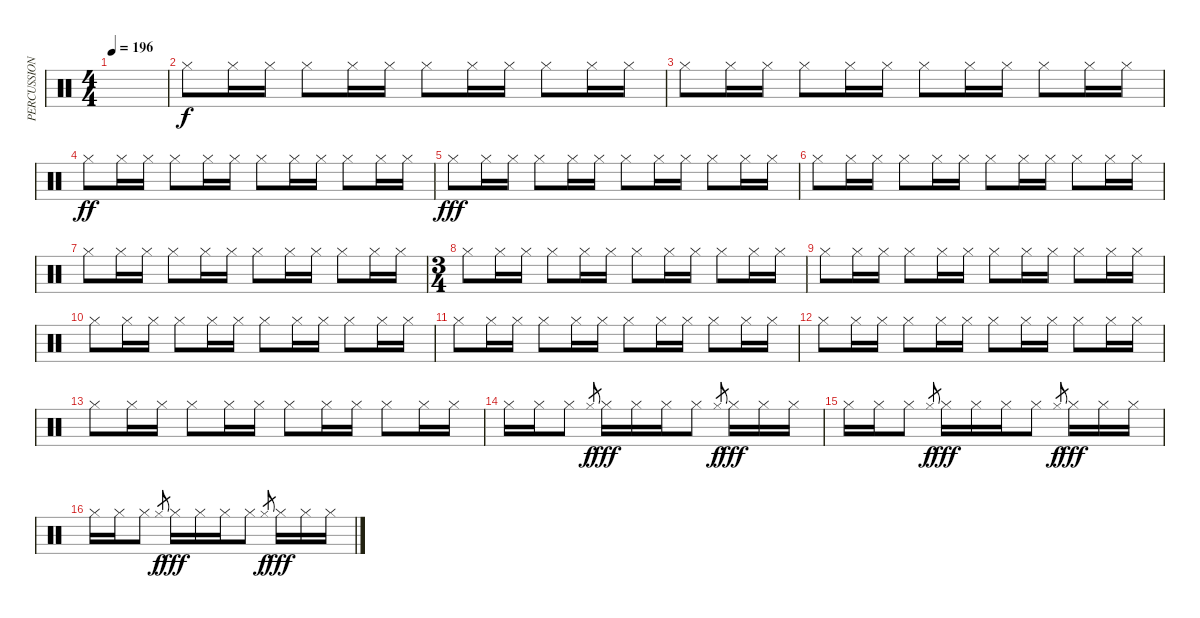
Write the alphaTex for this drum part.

\track ("PERCUSSION" "PERCUSSION") {instrument percussion}
\staff {score}
\articulation defaults
\ts (4 4)
\tempo 196
\clef neutral
\ks c
|
"Hi-Hat (closed)".8 "Hi-Hat (closed)".16 "Hi-Hat (closed)".16 "Hi-Hat (closed)".8 "Hi-Hat (closed)".16 "Hi-Hat (closed)".16 "Hi-Hat (closed)".8 "Hi-Hat (closed)".16 "Hi-Hat (closed)".16 "Hi-Hat (closed)".8 "Hi-Hat (closed)".16 "Hi-Hat (closed)".16 |
"Hi-Hat (closed)".8{volume 14} "Hi-Hat (closed)".16 "Hi-Hat (closed)".16 "Hi-Hat (closed)".8 "Hi-Hat (closed)".16 "Hi-Hat (closed)".16 "Hi-Hat (closed)".8 "Hi-Hat (closed)".16 "Hi-Hat (closed)".16 "Hi-Hat (closed)".8 "Hi-Hat (closed)".16 "Hi-Hat (closed)".16 |
"Hi-Hat (closed)".8{dy ff} "Hi-Hat (closed)".16 "Hi-Hat (closed)".16 "Hi-Hat (closed)".8 "Hi-Hat (closed)".16 "Hi-Hat (closed)".16 "Hi-Hat (closed)".8 "Hi-Hat (closed)".16 "Hi-Hat (closed)".16 "Hi-Hat (closed)".8 "Hi-Hat (closed)".16 "Hi-Hat (closed)".16 |
"Hi-Hat (closed)".8{dy fff} "Hi-Hat (closed)".16 "Hi-Hat (closed)".16 "Hi-Hat (closed)".8 "Hi-Hat (closed)".16 "Hi-Hat (closed)".16 "Hi-Hat (closed)".8 "Hi-Hat (closed)".16 "Hi-Hat (closed)".16 "Hi-Hat (closed)".8 "Hi-Hat (closed)".16 "Hi-Hat (closed)".16 |
"Hi-Hat (closed)".8 "Hi-Hat (closed)".16 "Hi-Hat (closed)".16 "Hi-Hat (closed)".8 "Hi-Hat (closed)".16 "Hi-Hat (closed)".16 "Hi-Hat (closed)".8 "Hi-Hat (closed)".16 "Hi-Hat (closed)".16 "Hi-Hat (closed)".8 "Hi-Hat (closed)".16 "Hi-Hat (closed)".16 |
"Hi-Hat (closed)".8 "Hi-Hat (closed)".16 "Hi-Hat (closed)".16 "Hi-Hat (closed)".8 "Hi-Hat (closed)".16 "Hi-Hat (closed)".16 "Hi-Hat (closed)".8 "Hi-Hat (closed)".16 "Hi-Hat (closed)".16 "Hi-Hat (closed)".8 "Hi-Hat (closed)".16 "Hi-Hat (closed)".16 |
\ts (3 4)
"Hi-Hat (closed)".8 "Hi-Hat (closed)".16 "Hi-Hat (closed)".16 "Hi-Hat (closed)".8 "Hi-Hat (closed)".16 "Hi-Hat (closed)".16 "Hi-Hat (closed)".8 "Hi-Hat (closed)".16 "Hi-Hat (closed)".16 "Hi-Hat (closed)".8 "Hi-Hat (closed)".16 "Hi-Hat (closed)".16 |
"Hi-Hat (closed)".8 "Hi-Hat (closed)".16 "Hi-Hat (closed)".16 "Hi-Hat (closed)".8 "Hi-Hat (closed)".16 "Hi-Hat (closed)".16 "Hi-Hat (closed)".8 "Hi-Hat (closed)".16 "Hi-Hat (closed)".16 "Hi-Hat (closed)".8 "Hi-Hat (closed)".16 "Hi-Hat (closed)".16 |
"Hi-Hat (closed)".8 "Hi-Hat (closed)".16 "Hi-Hat (closed)".16 "Hi-Hat (closed)".8 "Hi-Hat (closed)".16 "Hi-Hat (closed)".16 "Hi-Hat (closed)".8 "Hi-Hat (closed)".16 "Hi-Hat (closed)".16 "Hi-Hat (closed)".8 "Hi-Hat (closed)".16 "Hi-Hat (closed)".16 |
"Hi-Hat (closed)".8 "Hi-Hat (closed)".16 "Hi-Hat (closed)".16 "Hi-Hat (closed)".8 "Hi-Hat (closed)".16 "Hi-Hat (closed)".16 "Hi-Hat (closed)".8 "Hi-Hat (closed)".16 "Hi-Hat (closed)".16 "Hi-Hat (closed)".8 "Hi-Hat (closed)".16 "Hi-Hat (closed)".16 |
"Hi-Hat (closed)".8 "Hi-Hat (closed)".16 "Hi-Hat (closed)".16 "Hi-Hat (closed)".8 "Hi-Hat (closed)".16 "Hi-Hat (closed)".16 "Hi-Hat (closed)".8 "Hi-Hat (closed)".16 "Hi-Hat (closed)".16 "Hi-Hat (closed)".8 "Hi-Hat (closed)".16 "Hi-Hat (closed)".16 |
"Hi-Hat (closed)".8 "Hi-Hat (closed)".16 "Hi-Hat (closed)".16 "Hi-Hat (closed)".8 "Hi-Hat (closed)".16 "Hi-Hat (closed)".16 "Hi-Hat (closed)".8 "Hi-Hat (closed)".16 "Hi-Hat (closed)".16 "Hi-Hat (closed)".8 "Hi-Hat (closed)".16 "Hi-Hat (closed)".16 |
"Hi-Hat (closed)".16 "Hi-Hat (closed)".16 "Hi-Hat (closed)".8 "Hi-Hat (closed)".8{gr dy f} "Hi-Hat (closed)".16{dy fff} "Hi-Hat (closed)".16 "Hi-Hat (closed)".16 "Hi-Hat (closed)".8 "Hi-Hat (closed)".8{gr dy f} "Hi-Hat (closed)".16{dy fff} "Hi-Hat (closed)".16 "Hi-Hat (closed)".16 |
"Hi-Hat (closed)".16 "Hi-Hat (closed)".16 "Hi-Hat (closed)".8 "Hi-Hat (closed)".8{gr dy f} "Hi-Hat (closed)".16{dy fff} "Hi-Hat (closed)".16 "Hi-Hat (closed)".16 "Hi-Hat (closed)".8 "Hi-Hat (closed)".8{gr dy f} "Hi-Hat (closed)".16{dy fff} "Hi-Hat (closed)".16 "Hi-Hat (closed)".16 |
"Hi-Hat (closed)".16 "Hi-Hat (closed)".16 "Hi-Hat (closed)".8 "Hi-Hat (closed)".8{gr dy f} "Hi-Hat (closed)".16{dy fff} "Hi-Hat (closed)".16 "Hi-Hat (closed)".16 "Hi-Hat (closed)".8 "Hi-Hat (closed)".8{gr dy f} "Hi-Hat (closed)".16{dy fff} "Hi-Hat (closed)".16 "Hi-Hat (closed)".16
